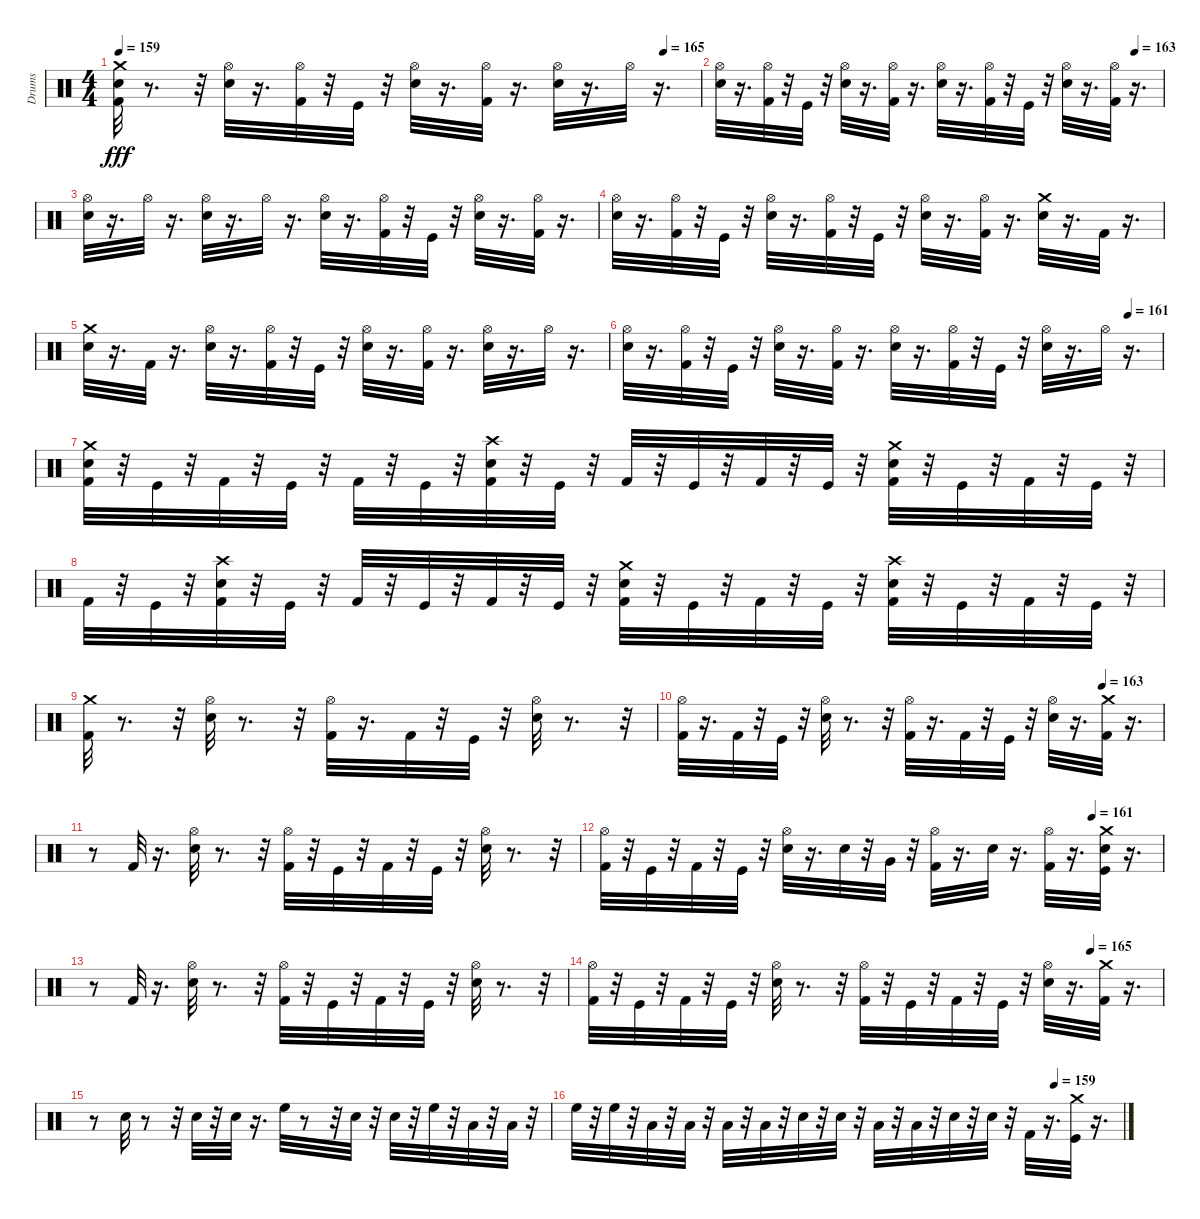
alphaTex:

\track ("Drums" "Drums") {instrument percussion}
\staff {score}
\articulation defaults
\ts (4 4)
\tempo 159
\tempo (165 0.9375)
\clef neutral
\ks c
("Snare (hit) 2" "Kick (hit) 2" "Crash medium (hit)").32{dy fff} r.8{d} r.32 ("Snare (hit) 2" "Hi-Hat (open)").32 r.16{d} ("Kick (hit) 2" "Hi-Hat (open)").32 r.32 "Kick (hit)".32 r.32 ("Snare (hit) 2" "Hi-Hat (open)").32 r.16{d} ("Kick (hit) 2" "Hi-Hat (open)").32 r.16{d} ("Snare (hit) 2" "Hi-Hat (open)").32 r.16{d} "Hi-Hat (open)".32 r.16{d} |
\tempo (163 0.9375)
("Snare (hit) 2" "Hi-Hat (open)").32 r.16{d} ("Kick (hit) 2" "Hi-Hat (open)").32 r.32 "Kick (hit)".32 r.32 ("Snare (hit) 2" "Hi-Hat (open)").32 r.16{d} ("Kick (hit) 2" "Hi-Hat (open)").32 r.16{d} ("Snare (hit) 2" "Hi-Hat (open)").32 r.16{d} ("Kick (hit) 2" "Hi-Hat (open)").32 r.32 "Kick (hit)".32 r.32 ("Snare (hit) 2" "Hi-Hat (open)").32 r.16{d} ("Kick (hit) 2" "Hi-Hat (open)").32 r.16{d} |
("Snare (hit) 2" "Hi-Hat (open)").32 r.16{d} "Hi-Hat (open)".32 r.16{d} ("Snare (hit) 2" "Hi-Hat (open)").32 r.16{d} "Hi-Hat (open)".32 r.16{d} ("Snare (hit) 2" "Hi-Hat (open)").32 r.16{d} ("Kick (hit) 2" "Hi-Hat (open)").32 r.32 "Kick (hit)".32 r.32 ("Snare (hit) 2" "Hi-Hat (open)").32 r.16{d} ("Kick (hit) 2" "Hi-Hat (open)").32 r.16{d} |
("Snare (hit) 2" "Hi-Hat (open)").32 r.16{d} ("Kick (hit) 2" "Hi-Hat (open)").32 r.32 "Kick (hit)".32 r.32 ("Snare (hit) 2" "Hi-Hat (open)").32 r.16{d} ("Kick (hit) 2" "Hi-Hat (open)").32 r.32 "Kick (hit)".32 r.32 ("Snare (hit) 2" "Hi-Hat (open)").32 r.16{d} ("Kick (hit) 2" "Hi-Hat (open)").32 r.16{d} ("Snare (hit) 2" "Crash medium (hit)").32 r.16{d} "Kick (hit) 2".32 r.16{d} |
("Snare (hit) 2" "Crash medium (hit)").32 r.16{d} "Kick (hit) 2".32 r.16{d} ("Snare (hit) 2" "Hi-Hat (open)").32 r.16{d} ("Kick (hit) 2" "Hi-Hat (open)").32 r.32 "Kick (hit)".32 r.32 ("Snare (hit) 2" "Hi-Hat (open)").32 r.16{d} ("Kick (hit) 2" "Hi-Hat (open)").32 r.16{d} ("Snare (hit) 2" "Hi-Hat (open)").32 r.16{d} "Hi-Hat (open)".32 r.16{d} |
\tempo (161 0.9375)
("Snare (hit) 2" "Hi-Hat (open)").32 r.16{d} ("Kick (hit) 2" "Hi-Hat (open)").32 r.32 "Kick (hit)".32 r.32 ("Snare (hit) 2" "Hi-Hat (open)").32 r.16{d} ("Kick (hit) 2" "Hi-Hat (open)").32 r.16{d} ("Snare (hit) 2" "Hi-Hat (open)").32 r.16{d} ("Kick (hit) 2" "Hi-Hat (open)").32 r.32 "Kick (hit)".32 r.32 ("Snare (hit) 2" "Hi-Hat (open)").32 r.16{d} "Hi-Hat (open)".32 r.16{d} |
("Crash medium (hit)" "Snare (hit) 2" "Kick (hit) 2").32 r.32 "Kick (hit)".32 r.32 "Kick (hit) 2".32 r.32 "Kick (hit)".32 r.32 "Kick (hit) 2".32 r.32 "Kick (hit)".32 r.32 ("Crash high (hit)" "Snare (hit) 2" "Kick (hit) 2").32 r.32 "Kick (hit)".32 r.32 "Kick (hit) 2".32 r.32 "Kick (hit)".32 r.32 "Kick (hit) 2".32 r.32 "Kick (hit)".32 r.32 ("Crash medium (hit)" "Snare (hit) 2" "Kick (hit) 2").32 r.32 "Kick (hit)".32 r.32 "Kick (hit) 2".32 r.32 "Kick (hit)".32 r.32 |
"Kick (hit) 2".32 r.32 "Kick (hit)".32 r.32 ("Crash high (hit)" "Snare (hit) 2" "Kick (hit) 2").32 r.32 "Kick (hit)".32 r.32 "Kick (hit) 2".32 r.32 "Kick (hit)".32 r.32 "Kick (hit) 2".32 r.32 "Kick (hit)".32 r.32 ("Crash medium (hit)" "Snare (hit) 2" "Kick (hit) 2").32 r.32 "Kick (hit)".32 r.32 "Kick (hit) 2".32 r.32 "Kick (hit)".32 r.32 ("Crash high (hit)" "Snare (hit) 2" "Kick (hit) 2").32 r.32 "Kick (hit)".32 r.32 "Kick (hit) 2".32 r.32 "Kick (hit)".32 r.32 |
("Kick (hit) 2" "Crash medium (hit)").32 r.8{d} r.32 ("Snare (hit) 2" "Hi-Hat (open)").32 r.8{d} r.32 ("Kick (hit) 2" "Hi-Hat (open)").32 r.16{d} "Kick (hit) 2".32 r.32 "Kick (hit)".32 r.32 ("Snare (hit) 2" "Hi-Hat (open)").32 r.8{d} r.32 |
\tempo (163 0.875)
("Kick (hit) 2" "Hi-Hat (open)").32 r.16{d} "Kick (hit) 2".32 r.32 "Kick (hit)".32 r.32 ("Snare (hit) 2" "Hi-Hat (open)").32 r.8{d} r.32 ("Kick (hit) 2" "Hi-Hat (open)").32 r.16{d} "Kick (hit) 2".32 r.32 "Kick (hit)".32 r.32 ("Snare (hit) 2" "Hi-Hat (open)").32 r.16{d} ("Kick (hit) 2" "Crash medium (hit)").32 r.16{d} |
r.8 "Kick (hit) 2".32 r.16{d} ("Snare (hit) 2" "Hi-Hat (open)").32 r.8{d} r.32 ("Kick (hit) 2" "Hi-Hat (open)").32 r.32 "Kick (hit)".32 r.32 "Kick (hit) 2".32 r.32 "Kick (hit)".32 r.32 ("Snare (hit) 2" "Hi-Hat (open)").32 r.8{d} r.32 |
\tempo (161 0.875)
("Kick (hit) 2" "Hi-Hat (open)").32 r.32 "Kick (hit)".32 r.32 "Kick (hit) 2".32 r.32 "Kick (hit)".32 r.32 ("Snare (hit) 2" "Hi-Hat (open)").32 r.16{d} "Snare (hit) 2".32 r.32 "Very Low Tom (hit)".32 r.32 ("Kick (hit) 2" "Hi-Hat (open)").32 r.16{d} "Snare (hit) 2".32 r.16{d} ("Kick (hit) 2" "Hi-Hat (open)").32 r.16{d} ("Snare (hit) 2" "Kick (hit)" "Crash medium (hit)").32 r.16{d} |
r.8 "Kick (hit) 2".32 r.16{d} ("Snare (hit) 2" "Hi-Hat (open)").32 r.8{d} r.32 ("Kick (hit) 2" "Hi-Hat (open)").32 r.32 "Kick (hit)".32 r.32 "Kick (hit) 2".32 r.32 "Kick (hit)".32 r.32 ("Snare (hit) 2" "Hi-Hat (open)").32 r.8{d} r.32 |
\tempo (165 0.875)
("Kick (hit) 2" "Hi-Hat (open)").32 r.32 "Kick (hit)".32 r.32 "Kick (hit) 2".32 r.32 "Kick (hit)".32 r.32 ("Snare (hit) 2" "Hi-Hat (open)").32 r.8{d} r.32 ("Kick (hit) 2" "Hi-Hat (open)").32 r.32 "Kick (hit)".32 r.32 "Kick (hit) 2".32 r.32 "Kick (hit)".32 r.32 ("Snare (hit) 2" "Hi-Hat (open)").32 r.16{d} ("Kick (hit) 2" "Crash medium (hit)").32 r.16{d} |
r.8 "Snare (hit) 2".32 r.8 r.32 "Snare (hit) 2".32 r.32 "Snare (hit) 2".32 r.16{d} "High Floor Tom (hit)".32 r.8 r.32 "Snare (hit) 2".32 r.32 "Snare (hit) 2".32 r.32 "High Floor Tom (hit)".32 r.32 "Low Tom (hit)".32 r.32 "Low Tom (hit)".32 r.32 |
\tempo (159 0.875)
"High Floor Tom (hit)".32 r.32 "High Floor Tom (hit)".32 r.32 "Low Tom (hit)".32 r.32 "Low Tom (hit)".32 r.32 "Low Floor Tom (hit)".32 r.32 "Low Floor Tom (hit)".32 r.32 "Snare (hit) 2".32 r.32 "Snare (hit) 2".32 r.32 "Low Floor Tom (hit)".32 r.32 "Low Floor Tom (hit)".32 r.32 "Snare (hit) 2".32 r.32 "Snare (hit) 2".32 r.32 "Kick (hit) 2".32 r.16{d} ("Crash medium (hit)" "Kick (hit)").32 r.16{d}
